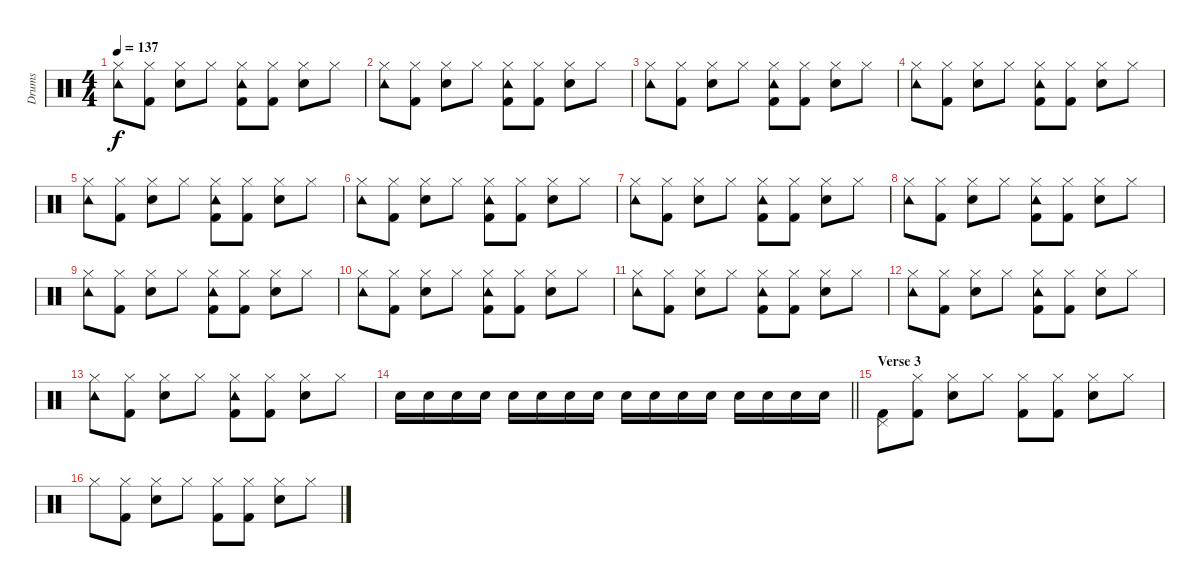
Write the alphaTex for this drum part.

\track ("Drums" "Drums") {instrument percussion}
\staff {score}
\articulation defaults
\ts (4 4)
\tempo 137
\clef neutral
\ks c
("Hi-Hat (closed)" "Tambourine (hit)").8{dy f} ("Hi-Hat (closed)" "Kick (hit) 2").8 ("Hi-Hat (closed)" "Snare (hit) 2").8 "Hi-Hat (closed)".8 ("Hi-Hat (closed)" "Tambourine (hit)" "Kick (hit) 2").8 ("Hi-Hat (closed)" "Kick (hit) 2").8 ("Hi-Hat (closed)" "Snare (hit) 2").8 "Hi-Hat (closed)".8 |
("Hi-Hat (closed)" "Tambourine (hit)").8 ("Hi-Hat (closed)" "Kick (hit) 2").8 ("Hi-Hat (closed)" "Snare (hit) 2").8 "Hi-Hat (closed)".8 ("Hi-Hat (closed)" "Tambourine (hit)" "Kick (hit) 2").8 ("Hi-Hat (closed)" "Kick (hit) 2").8 ("Hi-Hat (closed)" "Snare (hit) 2").8 "Hi-Hat (closed)".8 |
("Hi-Hat (closed)" "Tambourine (hit)").8 ("Hi-Hat (closed)" "Kick (hit) 2").8 ("Hi-Hat (closed)" "Snare (hit) 2").8 "Hi-Hat (closed)".8 ("Hi-Hat (closed)" "Tambourine (hit)" "Kick (hit) 2").8 ("Hi-Hat (closed)" "Kick (hit) 2").8 ("Hi-Hat (closed)" "Snare (hit) 2").8 "Hi-Hat (closed)".8 |
("Hi-Hat (closed)" "Tambourine (hit)").8 ("Hi-Hat (closed)" "Kick (hit) 2").8 ("Hi-Hat (closed)" "Snare (hit) 2").8 "Hi-Hat (closed)".8 ("Hi-Hat (closed)" "Tambourine (hit)" "Kick (hit) 2").8 ("Hi-Hat (closed)" "Kick (hit) 2").8 ("Hi-Hat (closed)" "Snare (hit) 2").8 "Hi-Hat (closed)".8 |
("Hi-Hat (closed)" "Tambourine (hit)").8 ("Hi-Hat (closed)" "Kick (hit) 2").8 ("Hi-Hat (closed)" "Snare (hit) 2").8 "Hi-Hat (closed)".8 ("Hi-Hat (closed)" "Tambourine (hit)" "Kick (hit) 2").8 ("Hi-Hat (closed)" "Kick (hit) 2").8 ("Hi-Hat (closed)" "Snare (hit) 2").8 "Hi-Hat (closed)".8 |
("Hi-Hat (closed)" "Tambourine (hit)").8 ("Hi-Hat (closed)" "Kick (hit) 2").8 ("Hi-Hat (closed)" "Snare (hit) 2").8 "Hi-Hat (closed)".8 ("Hi-Hat (closed)" "Tambourine (hit)" "Kick (hit) 2").8 ("Hi-Hat (closed)" "Kick (hit) 2").8 ("Hi-Hat (closed)" "Snare (hit) 2").8 "Hi-Hat (closed)".8 |
("Hi-Hat (closed)" "Tambourine (hit)").8 ("Hi-Hat (closed)" "Kick (hit) 2").8 ("Hi-Hat (closed)" "Snare (hit) 2").8 "Hi-Hat (closed)".8 ("Hi-Hat (closed)" "Tambourine (hit)" "Kick (hit) 2").8 ("Hi-Hat (closed)" "Kick (hit) 2").8 ("Hi-Hat (closed)" "Snare (hit) 2").8 "Hi-Hat (closed)".8 |
("Hi-Hat (closed)" "Tambourine (hit)").8 ("Hi-Hat (closed)" "Kick (hit) 2").8 ("Hi-Hat (closed)" "Snare (hit) 2").8 "Hi-Hat (closed)".8 ("Hi-Hat (closed)" "Tambourine (hit)" "Kick (hit) 2").8 ("Hi-Hat (closed)" "Kick (hit) 2").8 ("Hi-Hat (closed)" "Snare (hit) 2").8 "Hi-Hat (closed)".8 |
("Hi-Hat (closed)" "Tambourine (hit)").8 ("Hi-Hat (closed)" "Kick (hit) 2").8 ("Hi-Hat (closed)" "Snare (hit) 2").8 "Hi-Hat (closed)".8 ("Hi-Hat (closed)" "Tambourine (hit)" "Kick (hit) 2").8 ("Hi-Hat (closed)" "Kick (hit) 2").8 ("Hi-Hat (closed)" "Snare (hit) 2").8 "Hi-Hat (closed)".8 |
("Hi-Hat (closed)" "Tambourine (hit)").8 ("Hi-Hat (closed)" "Kick (hit) 2").8 ("Hi-Hat (closed)" "Snare (hit) 2").8 "Hi-Hat (closed)".8 ("Hi-Hat (closed)" "Tambourine (hit)" "Kick (hit) 2").8 ("Hi-Hat (closed)" "Kick (hit) 2").8 ("Hi-Hat (closed)" "Snare (hit) 2").8 "Hi-Hat (closed)".8 |
("Hi-Hat (closed)" "Tambourine (hit)").8 ("Hi-Hat (closed)" "Kick (hit) 2").8 ("Hi-Hat (closed)" "Snare (hit) 2").8 "Hi-Hat (closed)".8 ("Hi-Hat (closed)" "Tambourine (hit)" "Kick (hit) 2").8 ("Hi-Hat (closed)" "Kick (hit) 2").8 ("Hi-Hat (closed)" "Snare (hit) 2").8 "Hi-Hat (closed)".8 |
("Hi-Hat (closed)" "Tambourine (hit)").8 ("Hi-Hat (closed)" "Kick (hit) 2").8 ("Hi-Hat (closed)" "Snare (hit) 2").8 "Hi-Hat (closed)".8 ("Hi-Hat (closed)" "Tambourine (hit)" "Kick (hit) 2").8 ("Hi-Hat (closed)" "Kick (hit) 2").8 ("Hi-Hat (closed)" "Snare (hit) 2").8 "Hi-Hat (closed)".8 |
("Hi-Hat (closed)" "Tambourine (hit)").8 ("Hi-Hat (closed)" "Kick (hit) 2").8 ("Hi-Hat (closed)" "Snare (hit) 2").8 "Hi-Hat (closed)".8 ("Hi-Hat (closed)" "Tambourine (hit)" "Kick (hit) 2").8 ("Hi-Hat (closed)" "Kick (hit) 2").8 ("Hi-Hat (closed)" "Snare (hit) 2").8 "Hi-Hat (closed)".8 |
\barLineRight lightlight "Snare (hit) 2".16 "Snare (hit) 2".16 "Snare (hit) 2".16 "Snare (hit) 2".16 "Snare (hit) 2".16 "Snare (hit) 2".16 "Snare (hit) 2".16 "Snare (hit) 2".16 "Snare (hit) 2".16 "Snare (hit) 2".16 "Snare (hit) 2".16 "Snare (hit) 2".16 "Snare (hit) 2".16 "Snare (hit) 2".16 "Snare (hit) 2".16 "Snare (hit) 2".16
|
\section ("" "Verse 3")
("Pedal Hi-Hat (hit)" "Kick (hit) 2").8 ("Hi-Hat (closed)" "Kick (hit) 2").8 ("Hi-Hat (closed)" "Snare (hit) 2").8 "Hi-Hat (closed)".8 ("Hi-Hat (closed)" "Kick (hit) 2").8 ("Hi-Hat (closed)" "Kick (hit) 2").8 ("Hi-Hat (closed)" "Snare (hit) 2").8 "Hi-Hat (closed)".8 |
"Hi-Hat (closed)".8 ("Hi-Hat (closed)" "Kick (hit) 2").8 ("Hi-Hat (closed)" "Snare (hit) 2").8 "Hi-Hat (closed)".8 ("Hi-Hat (closed)" "Kick (hit) 2").8 ("Hi-Hat (closed)" "Kick (hit) 2").8 ("Hi-Hat (closed)" "Snare (hit) 2").8 "Hi-Hat (closed)".8
